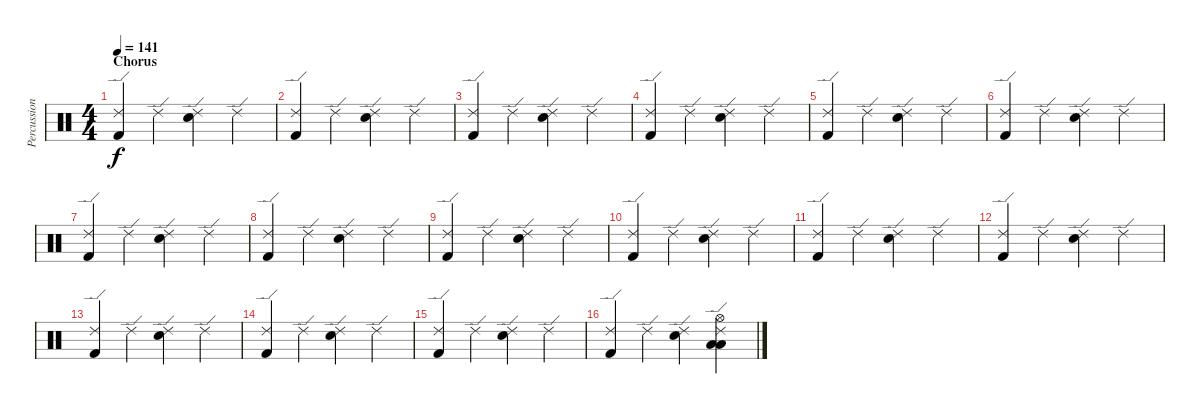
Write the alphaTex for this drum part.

\track ("Percussion" "Percussion") {instrument percussion}
\staff {score}
\articulation defaults
\ts (4 4)
\section ("" "Chorus")
\tempo 141
\clef neutral
\ks c
("Ride (edge) 2" "Kick (hit) 2").4{dy f} "Ride (edge) 2".4 ("Ride (edge) 2" "Electric Snare (hit)").4 "Ride (edge) 2".4 |
("Ride (edge) 2" "Kick (hit) 2").4 "Ride (edge) 2".4 ("Ride (edge) 2" "Electric Snare (hit)").4 "Ride (edge) 2".4 |
("Ride (edge) 2" "Kick (hit) 2").4 "Ride (edge) 2".4 ("Ride (edge) 2" "Electric Snare (hit)").4 "Ride (edge) 2".4 |
("Ride (edge) 2" "Kick (hit) 2").4 "Ride (edge) 2".4 ("Ride (edge) 2" "Electric Snare (hit)").4 "Ride (edge) 2".4 |
("Ride (edge) 2" "Kick (hit) 2").4 "Ride (edge) 2".4 ("Ride (edge) 2" "Electric Snare (hit)").4 "Ride (edge) 2".4 |
("Ride (edge) 2" "Kick (hit) 2").4 "Ride (edge) 2".4 ("Ride (edge) 2" "Electric Snare (hit)").4 "Ride (edge) 2".4 |
("Ride (edge) 2" "Kick (hit) 2").4 "Ride (edge) 2".4 ("Ride (edge) 2" "Electric Snare (hit)").4 "Ride (edge) 2".4 |
("Ride (edge) 2" "Kick (hit) 2").4 "Ride (edge) 2".4 ("Ride (edge) 2" "Electric Snare (hit)").4 "Ride (edge) 2".4 |
("Ride (edge) 2" "Kick (hit) 2").4 "Ride (edge) 2".4 ("Ride (edge) 2" "Electric Snare (hit)").4 "Ride (edge) 2".4 |
("Ride (edge) 2" "Kick (hit) 2").4 "Ride (edge) 2".4 ("Ride (edge) 2" "Electric Snare (hit)").4 "Ride (edge) 2".4 |
("Ride (edge) 2" "Kick (hit) 2").4 "Ride (edge) 2".4 ("Ride (edge) 2" "Electric Snare (hit)").4 "Ride (edge) 2".4 |
("Ride (edge) 2" "Kick (hit) 2").4 "Ride (edge) 2".4 ("Ride (edge) 2" "Electric Snare (hit)").4 "Ride (edge) 2".4 |
("Ride (edge) 2" "Kick (hit) 2").4 "Ride (edge) 2".4 ("Ride (edge) 2" "Electric Snare (hit)").4 "Ride (edge) 2".4 |
("Ride (edge) 2" "Kick (hit) 2").4 "Ride (edge) 2".4 ("Ride (edge) 2" "Electric Snare (hit)").4 "Ride (edge) 2".4 |
("Ride (edge) 2" "Kick (hit) 2").4 "Ride (edge) 2".4 ("Ride (edge) 2" "Electric Snare (hit)").4 "Ride (edge) 2".4 |
("Ride (edge) 2" "Kick (hit) 2").4 "Ride (edge) 2".4 ("Ride (edge) 2" "Electric Snare (hit)").4 ("Ride (edge) 2" "Hi-Hat (open)" "Low Floor Tom (hit)" "Low Floor Tom (hit)").4
